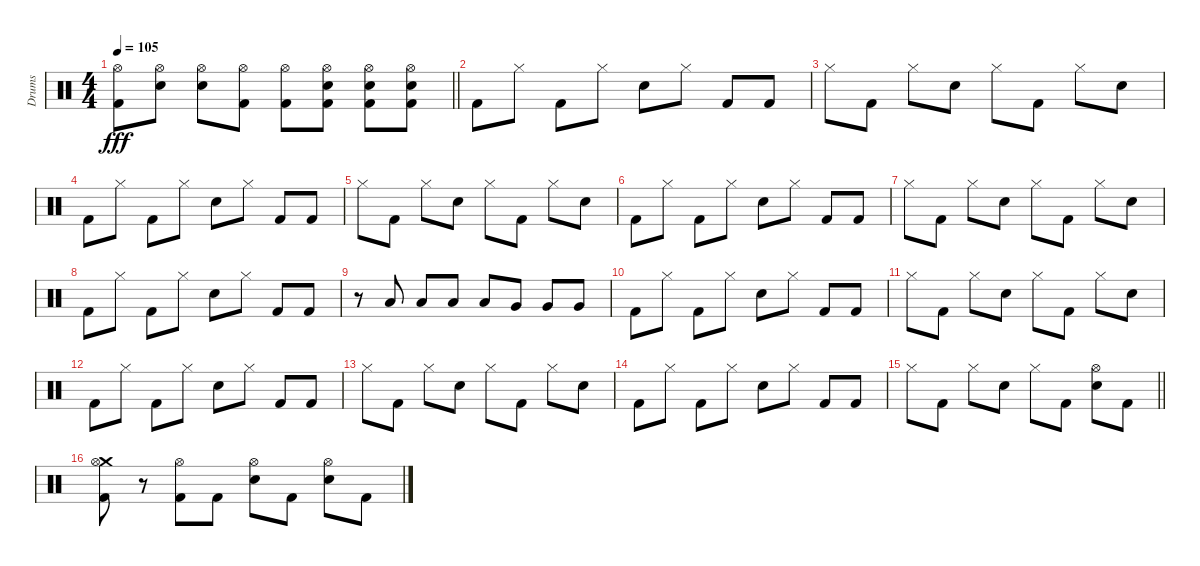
\track ("Drums" "Drums") {instrument percussion}
\staff {score}
\articulation defaults
\ts (4 4)
\tempo 105
\clef neutral
\barLineRight lightlight
\ks c
("Hi-Hat (open)" "Kick (hit) 2").8{dy fff} ("Hi-Hat (open)" "Electric Snare (hit)").8 ("Hi-Hat (open)" "Electric Snare (hit)").8 ("Hi-Hat (open)" "Kick (hit) 2").8 ("Hi-Hat (open)" "Kick (hit) 2").8 ("Hi-Hat (open)" "Electric Snare (hit)" "Kick (hit) 2").8 ("Hi-Hat (open)" "Electric Snare (hit)" "Kick (hit) 2").8 ("Hi-Hat (open)" "Electric Snare (hit)" "Kick (hit) 2").8 |
\section ("" "")
"Kick (hit) 2".8 "Hi-Hat (closed)".8 "Kick (hit) 2".8 "Hi-Hat (closed)".8 "Electric Snare (hit)".8 "Hi-Hat (closed)".8 "Kick (hit) 2".8 "Kick (hit) 2".8 |
"Hi-Hat (closed)".8 "Kick (hit) 2".8 "Hi-Hat (closed)".8 "Electric Snare (hit)".8 "Hi-Hat (closed)".8 "Kick (hit) 2".8 "Hi-Hat (closed)".8 "Electric Snare (hit)".8 |
"Kick (hit) 2".8 "Hi-Hat (closed)".8 "Kick (hit) 2".8 "Hi-Hat (closed)".8 "Electric Snare (hit)".8 "Hi-Hat (closed)".8 "Kick (hit) 2".8 "Kick (hit) 2".8 |
"Hi-Hat (closed)".8 "Kick (hit) 2".8 "Hi-Hat (closed)".8 "Electric Snare (hit)".8 "Hi-Hat (closed)".8 "Kick (hit) 2".8 "Hi-Hat (closed)".8 "Electric Snare (hit)".8 |
"Kick (hit) 2".8 "Hi-Hat (closed)".8 "Kick (hit) 2".8 "Hi-Hat (closed)".8 "Electric Snare (hit)".8 "Hi-Hat (closed)".8 "Kick (hit) 2".8 "Kick (hit) 2".8 |
"Hi-Hat (closed)".8 "Kick (hit) 2".8 "Hi-Hat (closed)".8 "Electric Snare (hit)".8 "Hi-Hat (closed)".8 "Kick (hit) 2".8 "Hi-Hat (closed)".8 "Electric Snare (hit)".8 |
"Kick (hit) 2".8 "Hi-Hat (closed)".8 "Kick (hit) 2".8 "Hi-Hat (closed)".8 "Electric Snare (hit)".8 "Hi-Hat (closed)".8 "Kick (hit) 2".8 "Kick (hit) 2".8 |
r.8 "Low Tom (hit)".8 "Low Tom (hit)".8 "Low Tom (hit)".8 "Low Tom (hit)".8 "Very Low Tom (hit)".8 "Very Low Tom (hit)".8 "Very Low Tom (hit)".8 |
"Kick (hit) 2".8 "Hi-Hat (closed)".8 "Kick (hit) 2".8 "Hi-Hat (closed)".8 "Electric Snare (hit)".8 "Hi-Hat (closed)".8 "Kick (hit) 2".8 "Kick (hit) 2".8 |
"Hi-Hat (closed)".8 "Kick (hit) 2".8 "Hi-Hat (closed)".8 "Electric Snare (hit)".8 "Hi-Hat (closed)".8 "Kick (hit) 2".8 "Hi-Hat (closed)".8 "Electric Snare (hit)".8 |
"Kick (hit) 2".8 "Hi-Hat (closed)".8 "Kick (hit) 2".8 "Hi-Hat (closed)".8 "Electric Snare (hit)".8 "Hi-Hat (closed)".8 "Kick (hit) 2".8 "Kick (hit) 2".8 |
"Hi-Hat (closed)".8 "Kick (hit) 2".8 "Hi-Hat (closed)".8 "Electric Snare (hit)".8 "Hi-Hat (closed)".8 "Kick (hit) 2".8 "Hi-Hat (closed)".8 "Electric Snare (hit)".8 |
"Kick (hit) 2".8 "Hi-Hat (closed)".8 "Kick (hit) 2".8 "Hi-Hat (closed)".8 "Electric Snare (hit)".8 "Hi-Hat (closed)".8 "Kick (hit) 2".8 "Kick (hit) 2".8 |
\barLineRight lightlight "Hi-Hat (closed)".8 "Kick (hit) 2".8 "Hi-Hat (closed)".8 "Electric Snare (hit)".8 "Hi-Hat (closed)".8 "Kick (hit) 2".8
("Hi-Hat (open)" "Electric Snare (hit)").8 "Kick (hit) 2".8 |
\section ("" "")
("Crash medium (hit)" "Hi-Hat (open)" "Kick (hit) 2").8 r.8 ("Hi-Hat (open)" "Kick (hit) 2").8 "Kick (hit) 2".8 ("Hi-Hat (open)" "Electric Snare (hit)").8 "Kick (hit) 2".8 ("Hi-Hat (open)" "Electric Snare (hit)").8 "Kick (hit) 2".8
